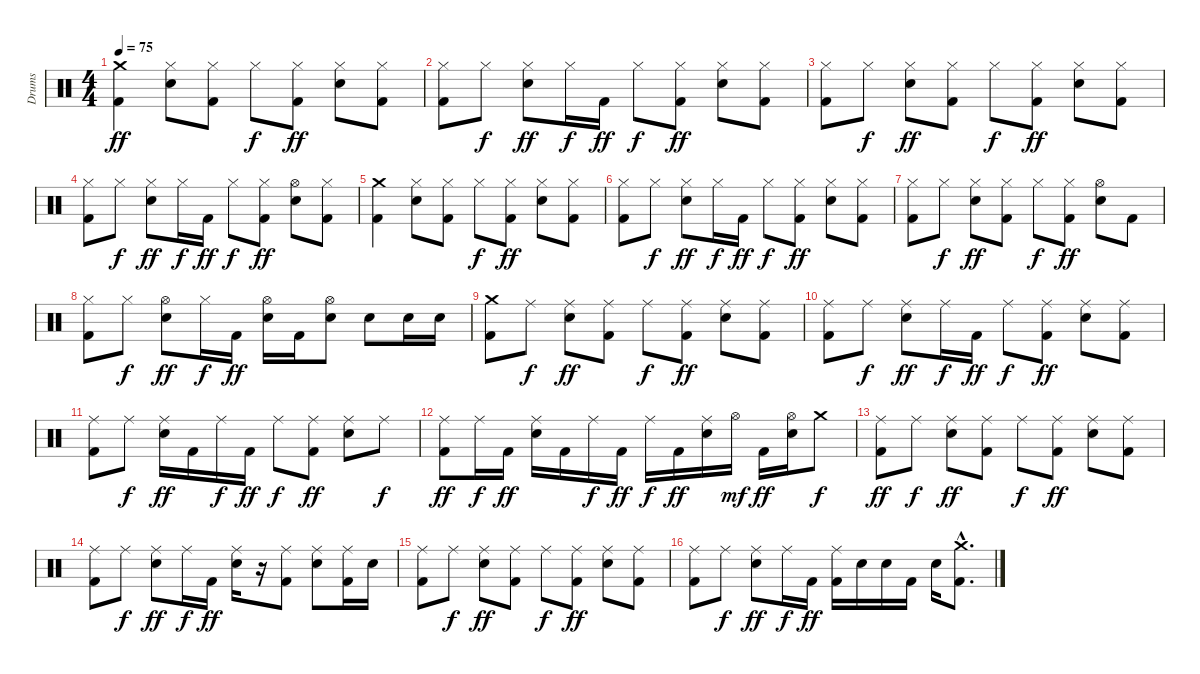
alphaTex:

\track ("Drums" "Drums") {instrument percussion}
\staff {score}
\articulation defaults
\ts (4 4)
\tempo 75
\clef neutral
\ks c
("Crash medium (hit)" "Kick (hit) 2").4{dy ff} ("Hi-Hat (closed)" "Electric Snare (hit)").8 ("Hi-Hat (closed)" "Kick (hit) 2").8 "Hi-Hat (closed)".8{dy f} ("Hi-Hat (closed)" "Kick (hit) 2").8{dy ff} ("Hi-Hat (closed)" "Electric Snare (hit)").8 ("Hi-Hat (closed)" "Kick (hit) 2").8 |
("Hi-Hat (closed)" "Kick (hit) 2").8 "Hi-Hat (closed)".8{dy f} ("Hi-Hat (closed)" "Electric Snare (hit)").8{dy ff} "Hi-Hat (closed)".16{dy f} "Kick (hit) 2".16{dy ff} "Hi-Hat (closed)".8{dy f} ("Hi-Hat (closed)" "Kick (hit) 2").8{dy ff} ("Hi-Hat (closed)" "Electric Snare (hit)").8 ("Hi-Hat (closed)" "Kick (hit) 2").8 |
("Hi-Hat (closed)" "Kick (hit) 2").8 "Hi-Hat (closed)".8{dy f} ("Hi-Hat (closed)" "Electric Snare (hit)").8{dy ff} ("Hi-Hat (closed)" "Kick (hit) 2").8 "Hi-Hat (closed)".8{dy f} ("Hi-Hat (closed)" "Kick (hit) 2").8{dy ff} ("Hi-Hat (closed)" "Electric Snare (hit)").8 ("Hi-Hat (closed)" "Kick (hit) 2").8 |
("Hi-Hat (closed)" "Kick (hit) 2").8 "Hi-Hat (closed)".8{dy f} ("Hi-Hat (closed)" "Electric Snare (hit)").8{dy ff} "Hi-Hat (closed)".16{dy f} "Kick (hit) 2".16{dy ff} "Hi-Hat (closed)".8{dy f} ("Hi-Hat (closed)" "Kick (hit) 2").8{dy ff} ("Hi-Hat (open)" "Electric Snare (hit)").8 ("Hi-Hat (closed)" "Kick (hit) 2").8 |
("Crash medium (hit)" "Kick (hit) 2").4 ("Hi-Hat (closed)" "Electric Snare (hit)").8 ("Hi-Hat (closed)" "Kick (hit) 2").8 "Hi-Hat (closed)".8{dy f} ("Hi-Hat (closed)" "Kick (hit) 2").8{dy ff} ("Hi-Hat (closed)" "Electric Snare (hit)").8 ("Hi-Hat (closed)" "Kick (hit) 2").8 |
("Hi-Hat (closed)" "Kick (hit) 2").8 "Hi-Hat (closed)".8{dy f} ("Hi-Hat (closed)" "Electric Snare (hit)").8{dy ff} "Hi-Hat (closed)".16{dy f} "Kick (hit) 2".16{dy ff} "Hi-Hat (closed)".8{dy f} ("Hi-Hat (closed)" "Kick (hit) 2").8{dy ff} ("Hi-Hat (closed)" "Electric Snare (hit)").8 ("Hi-Hat (closed)" "Kick (hit) 2").8 |
("Hi-Hat (closed)" "Kick (hit) 2").8 "Hi-Hat (closed)".8{dy f} ("Hi-Hat (closed)" "Electric Snare (hit)").8{dy ff} ("Hi-Hat (closed)" "Kick (hit) 2").8 "Hi-Hat (closed)".8{dy f} ("Hi-Hat (closed)" "Kick (hit) 2").8{dy ff} ("Hi-Hat (open)" "Electric Snare (hit)").8 "Kick (hit) 2".8 |
("Hi-Hat (closed)" "Kick (hit) 2").8 "Hi-Hat (closed)".8{dy f} ("Hi-Hat (open)" "Electric Snare (hit)").8{dy ff} "Hi-Hat (closed)".16{dy f} "Kick (hit) 2".16{dy ff} ("Hi-Hat (open)" "Electric Snare (hit)").16 "Kick (hit) 2".16 ("Hi-Hat (open)" "Electric Snare (hit)").8 "Electric Snare (hit)".8 "Electric Snare (hit)".16 "Electric Snare (hit)".16 |
("Crash medium (hit)" "Kick (hit) 2").8 "Ride (middle)".8{dy f} ("Ride (middle)" "Electric Snare (hit)").8{dy ff} ("Ride (middle)" "Kick (hit) 2").8 "Ride (middle)".8{dy f} ("Ride (middle)" "Kick (hit) 2").8{dy ff} ("Ride (middle)" "Electric Snare (hit)").8 ("Ride (middle)" "Kick (hit) 2").8 |
("Ride (middle)" "Kick (hit) 2").8 "Ride (middle)".8{dy f} ("Ride (middle)" "Electric Snare (hit)").8{dy ff} "Ride (middle)".16{dy f} "Kick (hit) 2".16{dy ff} "Ride (middle)".8{dy f} ("Ride (middle)" "Kick (hit) 2").8{dy ff} ("Ride (middle)" "Electric Snare (hit)").8 ("Ride (middle)" "Kick (hit) 2").8 |
("Ride (middle)" "Kick (hit) 2").8 "Ride (middle)".8{dy f} ("Ride (middle)" "Electric Snare (hit)").16{dy ff} "Kick (hit) 2".16 "Ride (middle)".16{dy f} "Kick (hit) 2".16{dy ff} "Ride (middle)".8{dy f} ("Ride (middle)" "Kick (hit) 2").8{dy ff} ("Ride (middle)" "Electric Snare (hit)").8 "Ride (middle)".8{dy f} |
("Ride (middle)" "Kick (hit) 2").8{dy ff} "Ride (middle)".16{dy f} "Kick (hit) 2".16{dy ff} ("Ride (middle)" "Electric Snare (hit)").16 "Kick (hit) 2".16 "Ride (middle)".16{dy f} "Kick (hit) 2".16{dy ff} "Ride (middle)".16{dy f} "Kick (hit) 2".16{dy ff} ("Ride (middle)" "Electric Snare (hit)").16 "Hi-Hat (open)".16{dy mf} "Kick (hit) 2".16{dy ff} ("Hi-Hat (open)" "Electric Snare (hit)").16 "Crash medium (hit)".8{dy f} |
("Ride (middle)" "Kick (hit) 2").8{dy ff} "Ride (middle)".8{dy f} ("Ride (middle)" "Electric Snare (hit)").8{dy ff} ("Ride (middle)" "Kick (hit) 2").8 "Ride (middle)".8{dy f} ("Ride (middle)" "Kick (hit) 2").8{dy ff} ("Ride (middle)" "Electric Snare (hit)").8 ("Ride (middle)" "Kick (hit) 2").8 |
("Ride (middle)" "Kick (hit) 2").8 "Ride (middle)".8{dy f} ("Ride (middle)" "Electric Snare (hit)").8{dy ff} "Ride (middle)".16{dy f} "Kick (hit) 2".16{dy ff} ("Ride (middle)" "Electric Snare (hit)").16 r.16 ("Ride (middle)" "Kick (hit) 2").8 ("Ride (middle)" "Electric Snare (hit)").8 ("Ride (middle)" "Kick (hit) 2").16 "Electric Snare (hit)".16 |
("Ride (middle)" "Kick (hit) 2").8 "Ride (middle)".8{dy f} ("Ride (middle)" "Electric Snare (hit)").8{dy ff} ("Ride (middle)" "Kick (hit) 2").8 "Ride (middle)".8{dy f} ("Ride (middle)" "Kick (hit) 2").8{dy ff} ("Ride (middle)" "Electric Snare (hit)").8 ("Ride (middle)" "Kick (hit) 2").8 |
("Ride (middle)" "Kick (hit) 2").8 "Ride (middle)".8{dy f} ("Ride (middle)" "Electric Snare (hit)").8{dy ff} "Ride (middle)".16{dy f} "Kick (hit) 2".16{dy ff} ("Ride (middle)" "Kick (hit) 2").16 "Electric Snare (hit)".16 "Electric Snare (hit)".16 "Kick (hit) 2".16 "Electric Snare (hit)".16 ("Crash medium (hit)"{hac} "Kick (hit) 2"{hac}).8{d}
